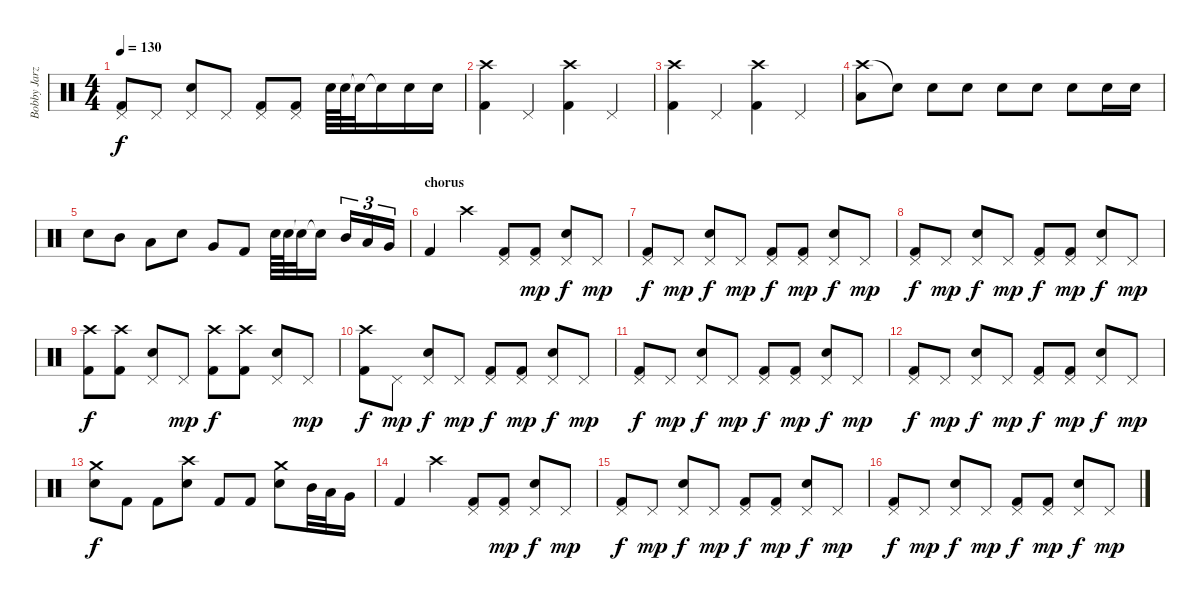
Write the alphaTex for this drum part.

\track ("Bobby Jarzombek" "Bobby Jarz") {instrument percussion}
\staff {score}
\articulation defaults
\ts (4 4)
\tempo 130
\clef neutral
\ks c
("Kick (hit) 2" "Pedal Hi-Hat (hit)").8{dy f} "Pedal Hi-Hat (hit)".8 ("Pedal Hi-Hat (hit)" "Snare (hit) 2").8 "Pedal Hi-Hat (hit)".8 ("Kick (hit) 2" "Pedal Hi-Hat (hit)").8 ("Kick (hit) 2" "Pedal Hi-Hat (hit)").8 "Snare (hit) 2".64 "Snare (hit) 2".64 "Snare (hit)"{t}.32 "Snare (hit)"{t}.16 "Snare (hit) 2".16 "Snare (hit) 2".16 |
("Kick (hit) 2" "Crash high (hit)").4 "Pedal Hi-Hat (hit)".4 ("Kick (hit) 2" "Crash high (hit)").4 "Pedal Hi-Hat (hit)".4 |
("Kick (hit) 2" "Crash high (hit)").4 "Pedal Hi-Hat (hit)".4 ("Kick (hit) 2" "Crash high (hit)").4 "Pedal Hi-Hat (hit)".4 |
("Crash high (hit)" "Low Tom (hit)").8 "Snare (hit)"{t}.8 "Snare (hit) 2".8 "Snare (hit) 2".8 "Snare (hit) 2".8 "Snare (hit) 2".8 "Snare (hit) 2".8 "Snare (hit) 2".16 "Snare (hit) 2".16 |
"Snare (hit) 2".8 "Mid Tom (hit)".8 "Low Tom (hit)".8 "Snare (hit) 2".8 "Very Low Tom (hit)".8 "Kick (hit) 2".8 "Snare (hit) 2".64 "Snare (hit) 2".64 "Snare (hit)"{t}.32 "Snare (hit)"{t}.16 "Mid Tom (hit)".16{tu (3 2)} "Low Tom (hit)".16{tu (3 2)} "Very Low Tom (hit)".16{tu (3 2)} |
\section ("" "chorus")
"Kick (hit) 2".4 "Crash high (hit)".4 ("Kick (hit) 2" "Pedal Hi-Hat (hit)").8 ("Kick (hit) 2" "Pedal Hi-Hat (hit)").8{dy mp} ("Pedal Hi-Hat (hit)" "Snare (hit) 2").8{dy f} "Pedal Hi-Hat (hit)".8{dy mp} |
("Kick (hit) 2" "Pedal Hi-Hat (hit)").8{dy f} "Pedal Hi-Hat (hit)".8{dy mp} ("Pedal Hi-Hat (hit)" "Snare (hit) 2").8{dy f} "Pedal Hi-Hat (hit)".8{dy mp} ("Kick (hit) 2" "Pedal Hi-Hat (hit)").8{dy f} ("Kick (hit) 2" "Pedal Hi-Hat (hit)").8{dy mp} ("Pedal Hi-Hat (hit)" "Snare (hit) 2").8{dy f} "Pedal Hi-Hat (hit)".8{dy mp} |
("Kick (hit) 2" "Pedal Hi-Hat (hit)").8{dy f} "Pedal Hi-Hat (hit)".8{dy mp} ("Pedal Hi-Hat (hit)" "Snare (hit) 2").8{dy f} "Pedal Hi-Hat (hit)".8{dy mp} ("Kick (hit) 2" "Pedal Hi-Hat (hit)").8{dy f} ("Kick (hit) 2" "Pedal Hi-Hat (hit)").8{dy mp} ("Pedal Hi-Hat (hit)" "Snare (hit) 2").8{dy f} "Pedal Hi-Hat (hit)".8{dy mp} |
("Kick (hit) 2" "Crash high (hit)").8{dy f} ("Kick (hit) 2" "Crash high (hit)").8 ("Pedal Hi-Hat (hit)" "Snare (hit) 2").8 "Pedal Hi-Hat (hit)".8{dy mp} ("Kick (hit) 2" "Crash high (hit)").8{dy f} ("Kick (hit) 2" "Crash high (hit)").8 ("Pedal Hi-Hat (hit)" "Snare (hit) 2").8 "Pedal Hi-Hat (hit)".8{dy mp} |
("Kick (hit) 2" "Crash high (hit)").8{dy f} "Pedal Hi-Hat (hit)".8{dy mp} ("Pedal Hi-Hat (hit)" "Snare (hit) 2").8{dy f} "Pedal Hi-Hat (hit)".8{dy mp} ("Kick (hit) 2" "Pedal Hi-Hat (hit)").8{dy f} ("Kick (hit) 2" "Pedal Hi-Hat (hit)").8{dy mp} ("Pedal Hi-Hat (hit)" "Snare (hit) 2").8{dy f} "Pedal Hi-Hat (hit)".8{dy mp} |
("Kick (hit) 2" "Pedal Hi-Hat (hit)").8{dy f} "Pedal Hi-Hat (hit)".8{dy mp} ("Pedal Hi-Hat (hit)" "Snare (hit) 2").8{dy f} "Pedal Hi-Hat (hit)".8{dy mp} ("Kick (hit) 2" "Pedal Hi-Hat (hit)").8{dy f} ("Kick (hit) 2" "Pedal Hi-Hat (hit)").8{dy mp} ("Pedal Hi-Hat (hit)" "Snare (hit) 2").8{dy f} "Pedal Hi-Hat (hit)".8{dy mp} |
("Kick (hit) 2" "Pedal Hi-Hat (hit)").8{dy f} "Pedal Hi-Hat (hit)".8{dy mp} ("Pedal Hi-Hat (hit)" "Snare (hit) 2").8{dy f} "Pedal Hi-Hat (hit)".8{dy mp} ("Kick (hit) 2" "Pedal Hi-Hat (hit)").8{dy f} ("Kick (hit) 2" "Pedal Hi-Hat (hit)").8{dy mp} ("Pedal Hi-Hat (hit)" "Snare (hit) 2").8{dy f} "Pedal Hi-Hat (hit)".8{dy mp} |
("Crash medium (hit)" "Snare (hit) 2").8{dy f} "Kick (hit) 2".8 "Kick (hit) 2".8 ("Crash high (hit)" "Snare (hit) 2").8 "Kick (hit) 2".8 "Kick (hit) 2".8 ("Crash medium (hit)" "Snare (hit) 2").8 "Mid Tom (hit)".32 "Low Tom (hit)".32 "Very Low Tom (hit)".16 |
"Kick (hit) 2".4 "Crash high (hit)".4 ("Kick (hit) 2" "Pedal Hi-Hat (hit)").8 ("Kick (hit) 2" "Pedal Hi-Hat (hit)").8{dy mp} ("Pedal Hi-Hat (hit)" "Snare (hit) 2").8{dy f} "Pedal Hi-Hat (hit)".8{dy mp} |
("Kick (hit) 2" "Pedal Hi-Hat (hit)").8{dy f} "Pedal Hi-Hat (hit)".8{dy mp} ("Pedal Hi-Hat (hit)" "Snare (hit) 2").8{dy f} "Pedal Hi-Hat (hit)".8{dy mp} ("Kick (hit) 2" "Pedal Hi-Hat (hit)").8{dy f} ("Kick (hit) 2" "Pedal Hi-Hat (hit)").8{dy mp} ("Pedal Hi-Hat (hit)" "Snare (hit) 2").8{dy f} "Pedal Hi-Hat (hit)".8{dy mp} |
("Kick (hit) 2" "Pedal Hi-Hat (hit)").8{dy f} "Pedal Hi-Hat (hit)".8{dy mp} ("Pedal Hi-Hat (hit)" "Snare (hit) 2").8{dy f} "Pedal Hi-Hat (hit)".8{dy mp} ("Kick (hit) 2" "Pedal Hi-Hat (hit)").8{dy f} ("Kick (hit) 2" "Pedal Hi-Hat (hit)").8{dy mp} ("Pedal Hi-Hat (hit)" "Snare (hit) 2").8{dy f} "Pedal Hi-Hat (hit)".8{dy mp}
